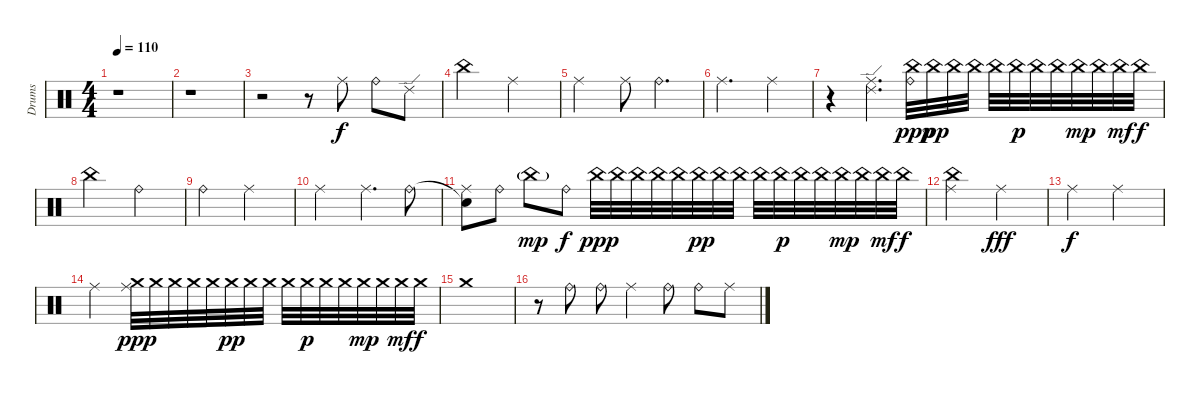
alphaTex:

\track ("Drums" "Drums") {instrument percussion}
\staff {score}
\articulation defaults
\ts (4 4)
\tempo 110
\clef neutral
\ks c
r.1{dy f} |
r.1 |
r.2 r.8 "Ride (middle)".8 "Ride (bell)".8 "Ride (edge) 2".8 |
"China (hit)".2 "Ride (middle)".2 |
"Ride (middle)".2 "Ride (middle)".8 "Ride (bell)".4{d} |
"Ride (middle)".2{d} "Ride (middle)".4 |
r.4 ("Ride (edge) 2" "Ride (middle)").4{d} ("China (hit)" "Ride (bell)").32{dy ppp} "China (hit)".32{dy pp} "China (hit)".32 "China (hit)".32 "China (hit)".32 "China (hit)".32{dy p} "China (hit)".32 "China (hit)".32 "China (hit)".32{dy mp} "China (hit)".32 "China (hit)".32{dy mf} "China (hit)".32{dy f} |
"China (hit)".2 "Ride (bell)".2 |
"Ride (bell)".2 "Ride (middle)".2 |
"Ride (middle)".2 "Ride (middle)".4{d} "Ride (bell)".8 |
("Snare (hit)"{t} "Ride (middle)").8 "Ride (bell)".8 "China (hit)"{g}.8{dy mp} "Ride (bell)".8{dy f} "China (hit)".32{dy ppp} "China (hit)".32 "China (hit)".32 "China (hit)".32 "China (hit)".32 "China (hit)".32{dy pp} "China (hit)".32 "China (hit)".32 "China (hit)".32 "China (hit)".32{dy p} "China (hit)".32 "China (hit)".32 "China (hit)".32{dy mp} "China (hit)".32 "China (hit)".32{dy mf} "China (hit)".32{dy f} |
("China (hit)" "Ride (middle)").2 "Ride (middle)".2{dy fff} |
"Ride (middle)".2{dy f} "Ride (middle)".2 |
"Ride (middle)".2 ("Crash medium (hit)" "Ride (middle)").32{dy ppp} "Crash medium (hit)".32 "Crash medium (hit)".32 "Crash medium (hit)".32 "Crash medium (hit)".32 "Crash medium (hit)".32{dy pp} "Crash medium (hit)".32 "Crash medium (hit)".32 "Crash medium (hit)".32 "Crash medium (hit)".32{dy p} "Crash medium (hit)".32 "Crash medium (hit)".32 "Crash medium (hit)".32{dy mp} "Crash medium (hit)".32 "Crash medium (hit)".32{dy mf} "Crash medium (hit)".32{dy f} |
"Crash medium (hit)".1 |
r.8 "Ride (bell)".8 "Ride (bell)".8 "Ride (middle)".4 "Ride (bell)".8 "Ride (bell)".8 "Ride (middle)".8
